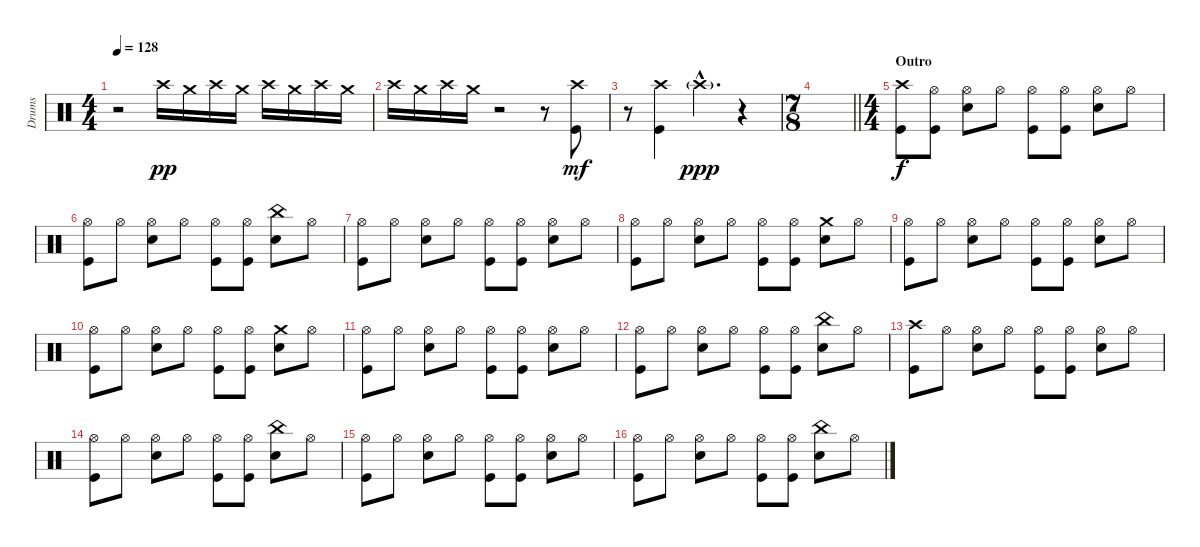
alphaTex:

\track ("Drums" "Drums") {instrument percussion}
\staff {score}
\articulation defaults
\ts (4 4)
\tempo 128
\clef neutral
\ks c
r.2{dy mf} "Crash high (hit)".16{dy pp} "Crash medium (hit)".16 "Crash high (hit)".16 "Crash medium (hit)".16 "Crash high (hit)".16 "Crash medium (hit)".16 "Crash high (hit)".16 "Crash medium (hit)".16 |
"Crash high (hit)".16 "Crash medium (hit)".16 "Crash high (hit)".16 "Crash medium (hit)".16 r.2 r.8 ("Crash high (hit)" "Kick (hit)").8{dy mf} |
r.8 ("Crash high (hit)" "Kick (hit)").4 "Crash high (hit)"{g hac}.4{d dy ppp} r.4 |
\ts (7 8)
\barLineRight lightlight
|
\ts (4 4)
\section ("" "Outro")
("Crash high (hit)" "Kick (hit)").8{dy f} ("Hi-Hat (open)" "Kick (hit)").8 ("Hi-Hat (open)" "Snare (hit) 2").8 "Hi-Hat (open)".8 ("Hi-Hat (open)" "Kick (hit)").8 ("Hi-Hat (open)" "Kick (hit)").8 ("Hi-Hat (open)" "Snare (hit) 2").8 "Hi-Hat (open)".8 |
("Hi-Hat (open)" "Kick (hit)").8 "Hi-Hat (open)".8 ("Hi-Hat (open)" "Snare (hit) 2").8 "Hi-Hat (open)".8 ("Hi-Hat (open)" "Kick (hit)").8 ("Hi-Hat (open)" "Kick (hit)").8 ("China (hit)" "Snare (hit) 2").8 "Hi-Hat (open)".8 |
("Hi-Hat (open)" "Kick (hit)").8 "Hi-Hat (open)".8 ("Hi-Hat (open)" "Snare (hit) 2").8 "Hi-Hat (open)".8 ("Hi-Hat (open)" "Kick (hit)").8 ("Hi-Hat (open)" "Kick (hit)").8 ("Hi-Hat (open)" "Snare (hit) 2").8 "Hi-Hat (open)".8 |
("Hi-Hat (open)" "Kick (hit)").8 "Hi-Hat (open)".8 ("Hi-Hat (open)" "Snare (hit) 2").8 "Hi-Hat (open)".8 ("Hi-Hat (open)" "Kick (hit)").8 ("Hi-Hat (open)" "Kick (hit)").8 ("Crash medium (hit)" "Snare (hit) 2").8 "Hi-Hat (open)".8 |
("Hi-Hat (open)" "Kick (hit)").8 "Hi-Hat (open)".8 ("Hi-Hat (open)" "Snare (hit) 2").8 "Hi-Hat (open)".8 ("Hi-Hat (open)" "Kick (hit)").8 ("Hi-Hat (open)" "Kick (hit)").8 ("Hi-Hat (open)" "Snare (hit) 2").8 "Hi-Hat (open)".8 |
("Hi-Hat (open)" "Kick (hit)").8 "Hi-Hat (open)".8 ("Hi-Hat (open)" "Snare (hit) 2").8 "Hi-Hat (open)".8 ("Hi-Hat (open)" "Kick (hit)").8 ("Hi-Hat (open)" "Kick (hit)").8 ("Crash medium (hit)" "Snare (hit) 2").8 "Hi-Hat (open)".8 |
("Hi-Hat (open)" "Kick (hit)").8 "Hi-Hat (open)".8 ("Hi-Hat (open)" "Snare (hit) 2").8 "Hi-Hat (open)".8 ("Hi-Hat (open)" "Kick (hit)").8 ("Hi-Hat (open)" "Kick (hit)").8 ("Hi-Hat (open)" "Snare (hit) 2").8 "Hi-Hat (open)".8 |
("Hi-Hat (open)" "Kick (hit)").8 "Hi-Hat (open)".8 ("Hi-Hat (open)" "Snare (hit) 2").8 "Hi-Hat (open)".8 ("Hi-Hat (open)" "Kick (hit)").8 ("Hi-Hat (open)" "Kick (hit)").8 ("China (hit)" "Snare (hit) 2").8 "Hi-Hat (open)".8 |
("Crash high (hit)" "Kick (hit)").8 "Hi-Hat (open)".8 ("Hi-Hat (open)" "Snare (hit) 2").8 "Hi-Hat (open)".8 ("Hi-Hat (open)" "Kick (hit)").8 ("Hi-Hat (open)" "Kick (hit)").8 ("Hi-Hat (open)" "Snare (hit) 2").8 "Hi-Hat (open)".8 |
("Hi-Hat (open)" "Kick (hit)").8 "Hi-Hat (open)".8 ("Hi-Hat (open)" "Snare (hit) 2").8 "Hi-Hat (open)".8 ("Hi-Hat (open)" "Kick (hit)").8 ("Hi-Hat (open)" "Kick (hit)").8 ("China (hit)" "Snare (hit) 2").8 "Hi-Hat (open)".8 |
("Hi-Hat (open)" "Kick (hit)").8 "Hi-Hat (open)".8 ("Hi-Hat (open)" "Snare (hit) 2").8 "Hi-Hat (open)".8 ("Hi-Hat (open)" "Kick (hit)").8 ("Hi-Hat (open)" "Kick (hit)").8 ("Hi-Hat (open)" "Snare (hit) 2").8 "Hi-Hat (open)".8 |
("Hi-Hat (open)" "Kick (hit)").8 "Hi-Hat (open)".8 ("Hi-Hat (open)" "Snare (hit) 2").8 "Hi-Hat (open)".8 ("Hi-Hat (open)" "Kick (hit)").8 ("Hi-Hat (open)" "Kick (hit)").8 ("China (hit)" "Snare (hit) 2").8 "Hi-Hat (open)".8
